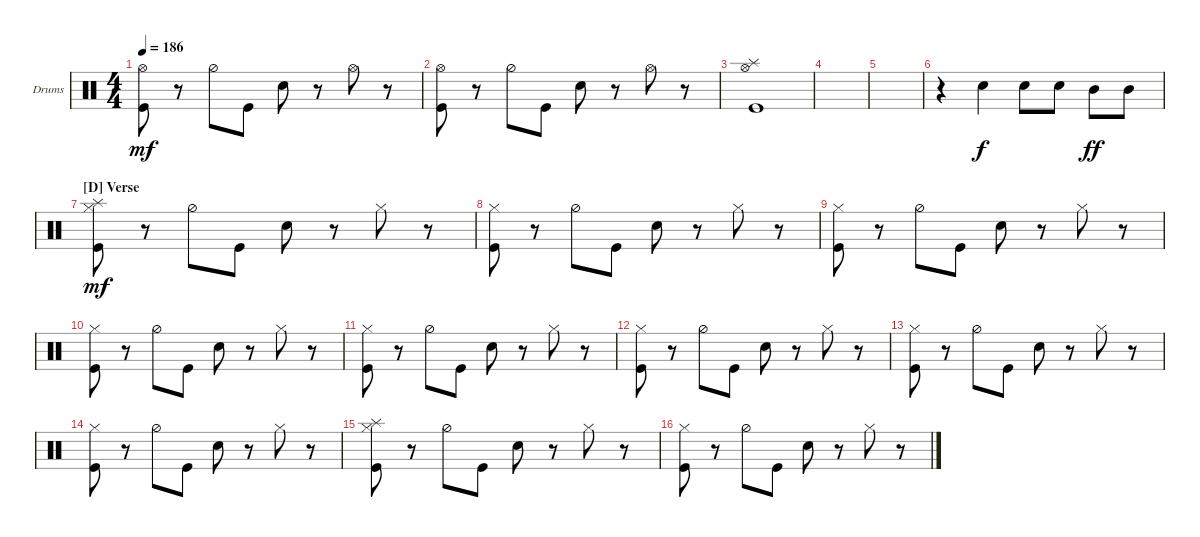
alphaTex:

\defaultSystemsLayout 4
\bracketExtendMode groupsimilarinstruments
\firstSystemTrackNameOrientation horizontal
\otherSystemsTrackNameOrientation horizontal
\track ("Drumkit" "Drums") {instrument percussion}
\staff {score}
\articulation defaults
\ts (4 4)
\tempo 186
\clef neutral
\scale
0.333333
\ks c
("Hi-Hat (open)" "Kick (hit)").8{dy mf} r.8 "Hi-Hat (half)".8 "Kick (hit)".8 "Snare (hit) 2".8 r.8 "Hi-Hat (open)".8 r.8 |
\scale
0.333333 ("Hi-Hat (open)" "Kick (hit)").8 r.8 "Hi-Hat (half)".8 "Kick (hit)".8 "Snare (hit) 2".8 r.8 "Hi-Hat (open)".8 r.8 |
\scale
0.333333 ("Hi-Hat (open)" "Kick (hit)" "Splash (hit)").1 |
\scale
0.333333 |
\scale
0.333333 |
\scale
0.333333 r.4 "Snare (hit) 2".4{dy f} "Snare (hit) 2".8 "Snare (hit) 2".8 "Mid Tom (hit)".8{dy ff} "Mid Tom (hit)".8 |
\section ("D" "Verse")
\scale
0.333333 ("Hi-Hat (closed)" "Kick (hit)" "Splash (hit)").8{dy mf} r.8 "Hi-Hat (half)".8 "Kick (hit)".8 "Snare (hit) 2".8 r.8 "Hi-Hat (closed)".8 r.8 |
\scale
0.333333 ("Hi-Hat (closed)" "Kick (hit)").8 r.8 "Hi-Hat (half)".8 "Kick (hit)".8 "Snare (hit) 2".8 r.8 "Hi-Hat (closed)".8 r.8 |
\scale
0.333333 ("Hi-Hat (closed)" "Kick (hit)").8 r.8 "Hi-Hat (half)".8 "Kick (hit)".8 "Snare (hit) 2".8 r.8 "Hi-Hat (closed)".8 r.8 |
\scale
0.333333 ("Hi-Hat (closed)" "Kick (hit)").8 r.8 "Hi-Hat (half)".8 "Kick (hit)".8 "Snare (hit) 2".8 r.8 "Hi-Hat (closed)".8 r.8 |
\scale
0.333333 ("Hi-Hat (closed)" "Kick (hit)").8 r.8 "Hi-Hat (half)".8 "Kick (hit)".8 "Snare (hit) 2".8 r.8 "Hi-Hat (closed)".8 r.8 |
\scale
0.333333 ("Hi-Hat (closed)" "Kick (hit)").8 r.8 "Hi-Hat (half)".8 "Kick (hit)".8 "Snare (hit) 2".8 r.8 "Hi-Hat (closed)".8 r.8 |
\scale
0.333333 ("Hi-Hat (closed)" "Kick (hit)").8 r.8 "Hi-Hat (half)".8 "Kick (hit)".8 "Snare (hit) 2".8 r.8 "Hi-Hat (closed)".8 r.8 |
\scale
0.333333 ("Hi-Hat (closed)" "Kick (hit)").8 r.8 "Hi-Hat (half)".8 "Kick (hit)".8 "Snare (hit) 2".8 r.8 "Hi-Hat (closed)".8 r.8 |
\scale
0.333333 ("Hi-Hat (closed)" "Kick (hit)" "Splash (hit)").8 r.8 "Hi-Hat (half)".8 "Kick (hit)".8 "Snare (hit) 2".8 r.8 "Hi-Hat (closed)".8 r.8 |
\scale
0.333333 ("Hi-Hat (closed)" "Kick (hit)").8 r.8 "Hi-Hat (half)".8 "Kick (hit)".8 "Snare (hit) 2".8 r.8 "Hi-Hat (closed)".8 r.8
